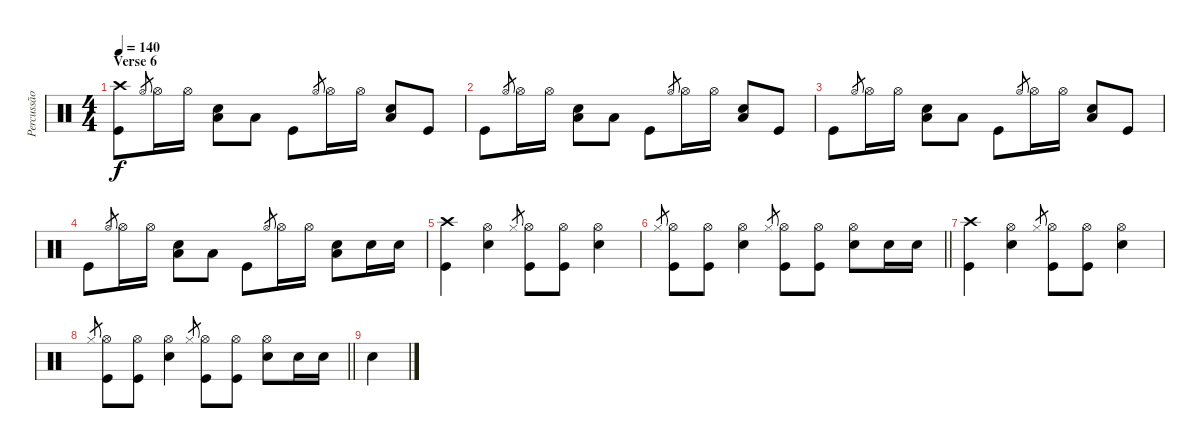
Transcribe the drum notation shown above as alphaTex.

\track ("Percussão" "Percussão") {instrument percussion}
\staff {score}
\articulation defaults
\ts (4 4)
\section ("" "Verse 6")
\tempo 140
\clef neutral
\ks c
("Crash high (hit)" "Kick (hit)").8{dy f} "Hi-Hat (open)".8{gr} "Hi-Hat (open)".16 "Hi-Hat (open)".16 ("Snare (hit) 2" "Low Tom (hit)").8 "Low Tom (hit)".8 "Kick (hit)".8 "Hi-Hat (open)".8{gr} "Hi-Hat (open)".16 "Hi-Hat (open)".16 ("Snare (hit) 2" "Low Tom (hit)").8 "Kick (hit)".8 |
"Kick (hit)".8 "Hi-Hat (open)".8{gr} "Hi-Hat (open)".16 "Hi-Hat (open)".16 ("Snare (hit) 2" "Low Tom (hit)").8 "Low Tom (hit)".8 "Kick (hit)".8 "Hi-Hat (open)".8{gr} "Hi-Hat (open)".16 "Hi-Hat (open)".16 ("Snare (hit) 2" "Low Tom (hit)").8 "Kick (hit)".8 |
"Kick (hit)".8 "Hi-Hat (open)".8{gr} "Hi-Hat (open)".16 "Hi-Hat (open)".16 ("Snare (hit) 2" "Low Tom (hit)").8 "Low Tom (hit)".8 "Kick (hit)".8 "Hi-Hat (open)".8{gr} "Hi-Hat (open)".16 "Hi-Hat (open)".16 ("Snare (hit) 2" "Low Tom (hit)").8 "Kick (hit)".8 |
"Kick (hit)".8 "Hi-Hat (open)".8{gr} "Hi-Hat (open)".16 "Hi-Hat (open)".16 ("Snare (hit) 2" "Low Tom (hit)").8 "Low Tom (hit)".8 "Kick (hit)".8 "Hi-Hat (open)".8{gr} "Hi-Hat (open)".16 "Hi-Hat (open)".16 ("Snare (hit) 2" "Low Tom (hit)").8 "Snare (hit) 2".16 "Snare (hit) 2".16 |
("Crash high (hit)" "Kick (hit)").4 ("Hi-Hat (open)" "Snare (hit) 2").4 "Hi-Hat (closed)".8{gr} ("Hi-Hat (open)" "Kick (hit)").8 ("Hi-Hat (open)" "Kick (hit)").8 ("Hi-Hat (open)" "Snare (hit) 2").4 |
\barLineRight lightlight "Hi-Hat (closed)".8{gr}
("Hi-Hat (open)" "Kick (hit)").8 ("Hi-Hat (open)" "Kick (hit)").8 ("Hi-Hat (open)" "Snare (hit) 2").4 "Hi-Hat (closed)".8{gr} ("Hi-Hat (open)" "Kick (hit)").8 ("Hi-Hat (open)" "Kick (hit)").8 ("Hi-Hat (open)" "Snare (hit) 2").8 "Snare (hit) 2".16 "Snare (hit) 2".16 |
("Crash high (hit)" "Kick (hit)").4 ("Hi-Hat (open)" "Snare (hit) 2").4 "Hi-Hat (closed)".8{gr} ("Hi-Hat (open)" "Kick (hit)").8 ("Hi-Hat (open)" "Kick (hit)").8 ("Hi-Hat (open)" "Snare (hit) 2").4 |
\barLineRight lightlight "Hi-Hat (closed)".8{gr}
("Hi-Hat (open)" "Kick (hit)").8 ("Hi-Hat (open)" "Kick (hit)").8 ("Hi-Hat (open)" "Snare (hit) 2").4 "Hi-Hat (closed)".8{gr} ("Hi-Hat (open)" "Kick (hit)").8 ("Hi-Hat (open)" "Kick (hit)").8 ("Hi-Hat (open)" "Snare (hit) 2").8 "Snare (hit) 2".16 "Snare (hit) 2".16 |
"Snare (hit) 2".4
